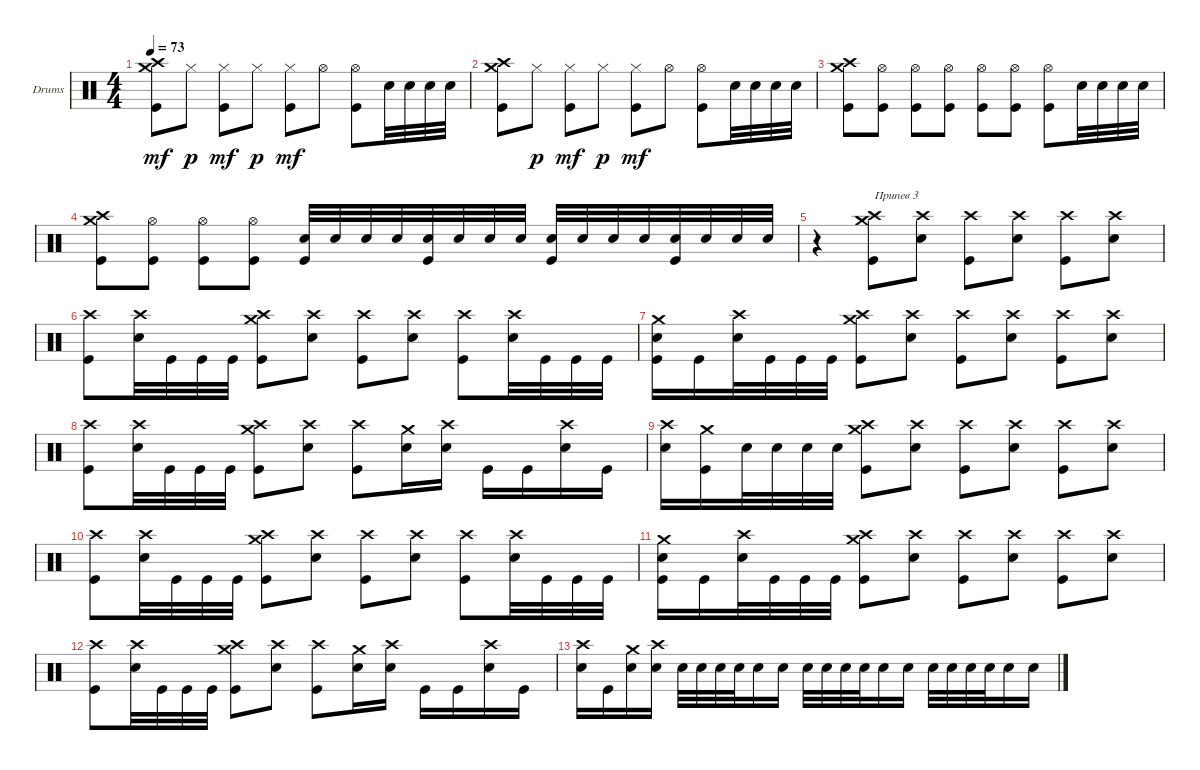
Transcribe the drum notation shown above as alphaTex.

\defaultSystemsLayout 4
\bracketExtendMode groupsimilarinstruments
\firstSystemTrackNameOrientation horizontal
\otherSystemsTrackNameOrientation horizontal
\track ("Drumkit" "Drums") {instrument percussion}
\staff {score}
\articulation defaults
\ts (4 4)
\tempo 73
\clef neutral
\ks c
("Crash high (hit)" "Crash medium (hit)" "Kick (hit)").8{dy mf} "Hi-Hat (closed)".8{dy p} ("Hi-Hat (closed)" "Kick (hit)").8{dy mf} "Hi-Hat (closed)".8{dy p} ("Hi-Hat (closed)" "Kick (hit)").8{dy mf} "Hi-Hat (open)".8 ("Hi-Hat (open)" "Kick (hit)").8 "Snare (hit) 2".32 "Snare (hit) 2".32 "Snare (hit) 2".32 "Snare (hit) 2".32 |
("Crash high (hit)" "Crash medium (hit)" "Kick (hit)").8 "Hi-Hat (closed)".8{dy p} ("Hi-Hat (closed)" "Kick (hit)").8{dy mf} "Hi-Hat (closed)".8{dy p} ("Hi-Hat (closed)" "Kick (hit)").8{dy mf} "Hi-Hat (open)".8 ("Hi-Hat (open)" "Kick (hit)").8 "Snare (hit) 2".32 "Snare (hit) 2".32 "Snare (hit) 2".32 "Snare (hit) 2".32 |
("Crash high (hit)" "Crash medium (hit)" "Kick (hit)").8 ("Hi-Hat (open)" "Kick (hit)").8 ("Hi-Hat (open)" "Kick (hit)").8 ("Hi-Hat (open)" "Kick (hit)").8 ("Hi-Hat (open)" "Kick (hit)").8 ("Hi-Hat (open)" "Kick (hit)").8 ("Hi-Hat (open)" "Kick (hit)").8 "Snare (hit) 2".32 "Snare (hit) 2".32 "Snare (hit) 2".32 "Snare (hit) 2".32 |
("Crash high (hit)" "Crash medium (hit)" "Kick (hit)").8 ("Hi-Hat (open)" "Kick (hit)").8 ("Hi-Hat (open)" "Kick (hit)").8 ("Hi-Hat (open)" "Kick (hit)").8 ("Snare (hit) 2" "Kick (hit)").32 "Snare (hit) 2".32 "Snare (hit) 2".32 "Snare (hit) 2".32 ("Snare (hit) 2" "Kick (hit)").32 "Snare (hit) 2".32 "Snare (hit) 2".32 "Snare (hit) 2".32 ("Snare (hit) 2" "Kick (hit)").32 "Snare (hit) 2".32 "Snare (hit) 2".32 "Snare (hit) 2".32 ("Snare (hit) 2" "Kick (hit)").32 "Snare (hit) 2".32 "Snare (hit) 2".32 "Snare (hit) 2".32 |
r.4 ("Crash high (hit)" "Kick (hit)" "Crash medium (hit)").8{txt "Припев 3"} ("Crash high (hit)" "Snare (hit) 2").8 ("Crash high (hit)" "Kick (hit)").8 ("Crash high (hit)" "Snare (hit) 2").8 ("Crash high (hit)" "Kick (hit)").8 ("Crash high (hit)" "Snare (hit) 2").8 |
("Crash high (hit)" "Kick (hit)").8 ("Crash high (hit)" "Snare (hit) 2").32 "Kick (hit)".32 "Kick (hit)".32 "Kick (hit)".32 ("Crash high (hit)" "Kick (hit)" "Crash medium (hit)").8 ("Crash high (hit)" "Snare (hit) 2").8 ("Crash high (hit)" "Kick (hit)").8 ("Crash high (hit)" "Snare (hit) 2").8 ("Crash high (hit)" "Kick (hit)").8 ("Crash high (hit)" "Snare (hit) 2").32 "Kick (hit)".32 "Kick (hit)".32 "Kick (hit)".32 |
("Kick (hit)" "Crash medium (hit)" "Snare (hit) 2").16 "Kick (hit)".16 ("Crash high (hit)" "Snare (hit) 2").32 "Kick (hit)".32 "Kick (hit)".32 "Kick (hit)".32 ("Crash high (hit)" "Kick (hit)" "Crash medium (hit)").8 ("Crash high (hit)" "Snare (hit) 2").8 ("Crash high (hit)" "Kick (hit)").8 ("Crash high (hit)" "Snare (hit) 2").8 ("Crash high (hit)" "Kick (hit)").8 ("Crash high (hit)" "Snare (hit) 2").8 |
("Crash high (hit)" "Kick (hit)").8 ("Crash high (hit)" "Snare (hit) 2").32 "Kick (hit)".32 "Kick (hit)".32 "Kick (hit)".32 ("Crash high (hit)" "Kick (hit)" "Crash medium (hit)").8 ("Crash high (hit)" "Snare (hit) 2").8 ("Crash high (hit)" "Kick (hit)").8 ("Snare (hit) 2" "Crash medium (hit)").16 ("Crash high (hit)" "Snare (hit) 2").16 "Kick (hit)".16 "Kick (hit)".16 ("Snare (hit) 2" "Crash high (hit)").16 "Kick (hit)".16 |
("Crash high (hit)" "Snare (hit) 2").16 ("Kick (hit)" "Crash medium (hit)").16 "Snare (hit) 2".32 "Snare (hit) 2".32 "Snare (hit) 2".32 "Snare (hit) 2".32 ("Crash high (hit)" "Kick (hit)" "Crash medium (hit)").8 ("Crash high (hit)" "Snare (hit) 2").8 ("Crash high (hit)" "Kick (hit)").8 ("Crash high (hit)" "Snare (hit) 2").8 ("Crash high (hit)" "Kick (hit)").8 ("Crash high (hit)" "Snare (hit) 2").8 |
("Crash high (hit)" "Kick (hit)").8 ("Crash high (hit)" "Snare (hit) 2").32 "Kick (hit)".32 "Kick (hit)".32 "Kick (hit)".32 ("Crash high (hit)" "Kick (hit)" "Crash medium (hit)").8 ("Crash high (hit)" "Snare (hit) 2").8 ("Crash high (hit)" "Kick (hit)").8 ("Crash high (hit)" "Snare (hit) 2").8 ("Crash high (hit)" "Kick (hit)").8 ("Crash high (hit)" "Snare (hit) 2").32 "Kick (hit)".32 "Kick (hit)".32 "Kick (hit)".32 |
("Kick (hit)" "Crash medium (hit)" "Snare (hit) 2").16 "Kick (hit)".16 ("Crash high (hit)" "Snare (hit) 2").32 "Kick (hit)".32 "Kick (hit)".32 "Kick (hit)".32 ("Crash high (hit)" "Kick (hit)" "Crash medium (hit)").8 ("Crash high (hit)" "Snare (hit) 2").8 ("Crash high (hit)" "Kick (hit)").8 ("Crash high (hit)" "Snare (hit) 2").8 ("Crash high (hit)" "Kick (hit)").8 ("Crash high (hit)" "Snare (hit) 2").8 |
("Crash high (hit)" "Kick (hit)").8 ("Crash high (hit)" "Snare (hit) 2").32 "Kick (hit)".32 "Kick (hit)".32 "Kick (hit)".32 ("Crash high (hit)" "Kick (hit)" "Crash medium (hit)").8 ("Crash high (hit)" "Snare (hit) 2").8 ("Crash high (hit)" "Kick (hit)").8 ("Snare (hit) 2" "Crash medium (hit)").16 ("Crash high (hit)" "Snare (hit) 2").16 "Kick (hit)".16 "Kick (hit)".16 ("Snare (hit) 2" "Crash high (hit)").16 "Kick (hit)".16 |
("Crash high (hit)" "Snare (hit) 2").16 "Kick (hit)".16 ("Snare (hit) 2" "Crash medium (hit)").16 ("Crash high (hit)" "Snare (hit) 2").16 "Snare (hit) 2".32 "Snare (hit) 2".32 "Snare (hit) 2".32 "Snare (hit) 2".32 "Snare (hit) 2".16 "Snare (hit) 2".16 "Snare (hit) 2".32 "Snare (hit) 2".32 "Snare (hit) 2".32 "Snare (hit) 2".32 "Snare (hit) 2".16 "Snare (hit) 2".16 "Snare (hit) 2".32 "Snare (hit) 2".32 "Snare (hit) 2".32 "Snare (hit) 2".32 "Snare (hit) 2".16 "Snare (hit) 2".16
